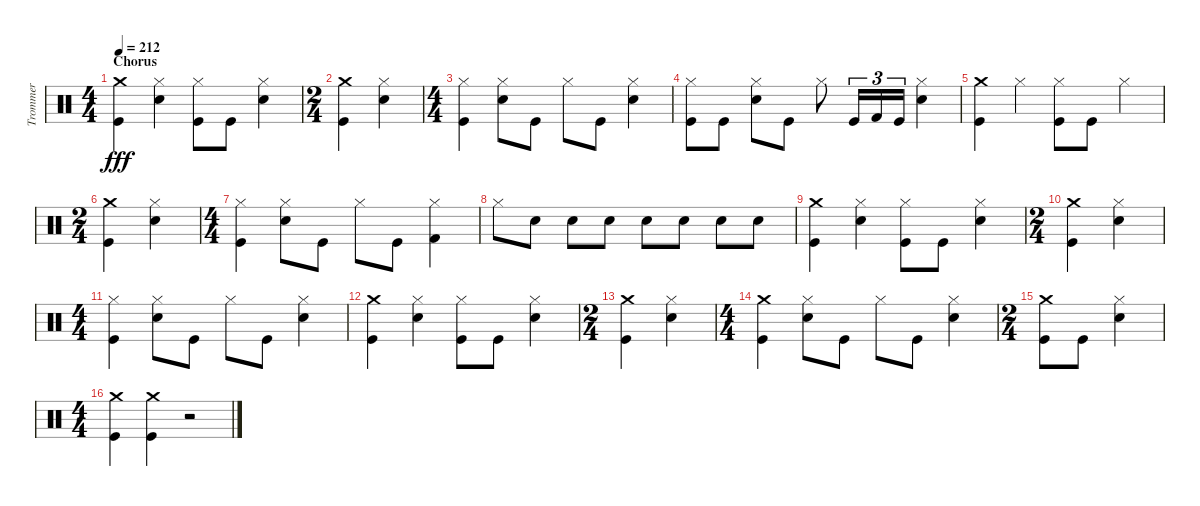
\track ("Trommer" "Trommer") {instrument percussion}
\staff {score}
\articulation defaults
\ts (4 4)
\section ("" "Chorus")
\tempo 212
\clef neutral
\ks c
("Kick (hit)" "Crash medium (hit)").4{dy fff} ("Snare (hit) 2" "Hi-Hat (closed)").4 ("Kick (hit)" "Hi-Hat (closed)").8 "Kick (hit)".8 ("Snare (hit) 2" "Hi-Hat (closed)").4 |
\ts (2 4)
("Kick (hit)" "Crash medium (hit)").4 ("Snare (hit) 2" "Hi-Hat (closed)").4 |
\ts (4 4)
("Kick (hit)" "Hi-Hat (closed)").4 ("Snare (hit) 2" "Hi-Hat (closed)").8 "Kick (hit)".8 "Hi-Hat (closed)".8 "Kick (hit)".8 ("Snare (hit) 2" "Hi-Hat (closed)").4 |
("Hi-Hat (closed)" "Kick (hit)").8 "Kick (hit)".8 ("Snare (hit) 2" "Hi-Hat (closed)").8 "Kick (hit)".8 "Hi-Hat (closed)".8 "Kick (hit)".16{tu (3 2)} "Kick (hit) 2".16{tu (3 2)} "Kick (hit)".16{tu (3 2)} ("Snare (hit) 2" "Hi-Hat (closed)").4 |
("Kick (hit)" "Crash medium (hit)").4 "Hi-Hat (closed)".4 ("Kick (hit)" "Hi-Hat (closed)").8 "Kick (hit)".8 "Hi-Hat (closed)".4 |
\ts (2 4)
("Kick (hit)" "Crash medium (hit)").4 ("Snare (hit) 2" "Hi-Hat (closed)").4 |
\ts (4 4)
("Hi-Hat (closed)" "Kick (hit)").4 ("Snare (hit) 2" "Hi-Hat (closed)").8 "Kick (hit)".8 "Hi-Hat (closed)".8 "Kick (hit)".8 ("Kick (hit) 2" "Hi-Hat (closed)").4 |
"Hi-Hat (closed)".8 "Snare (hit) 2".8 "Snare (hit) 2".8 "Snare (hit) 2".8 "Snare (hit) 2".8 "Snare (hit) 2".8 "Snare (hit) 2".8 "Snare (hit) 2".8 |
("Crash medium (hit)" "Kick (hit)").4 ("Snare (hit) 2" "Hi-Hat (closed)").4 ("Hi-Hat (closed)" "Kick (hit)").8 "Kick (hit)".8 ("Snare (hit) 2" "Hi-Hat (closed)").4 |
\ts (2 4)
("Crash medium (hit)" "Kick (hit)").4 ("Snare (hit) 2" "Hi-Hat (closed)").4 |
\ts (4 4)
("Kick (hit)" "Hi-Hat (closed)").4 ("Snare (hit) 2" "Hi-Hat (closed)").8 "Kick (hit)".8 "Hi-Hat (closed)".8 "Kick (hit)".8 ("Snare (hit) 2" "Hi-Hat (closed)").4 |
("Kick (hit)" "Crash medium (hit)").4 ("Snare (hit) 2" "Hi-Hat (closed)").4 ("Kick (hit)" "Hi-Hat (closed)").8 "Kick (hit)".8 ("Snare (hit) 2" "Hi-Hat (closed)").4 |
\ts (2 4)
("Kick (hit)" "Crash medium (hit)").4 ("Snare (hit) 2" "Hi-Hat (closed)").4 |
\ts (4 4)
("Kick (hit)" "Crash medium (hit)").4 ("Hi-Hat (closed)" "Snare (hit) 2").8 "Kick (hit)".8 "Hi-Hat (closed)".8 "Kick (hit)".8 ("Snare (hit) 2" "Hi-Hat (closed)").4 |
\ts (2 4)
("Kick (hit)" "Crash medium (hit)").8 "Kick (hit)".8 ("Snare (hit) 2" "Hi-Hat (closed)").4 |
\ts (4 4)
("Kick (hit)" "Crash medium (hit)").4 ("Crash medium (hit)" "Kick (hit)").4 r.2
